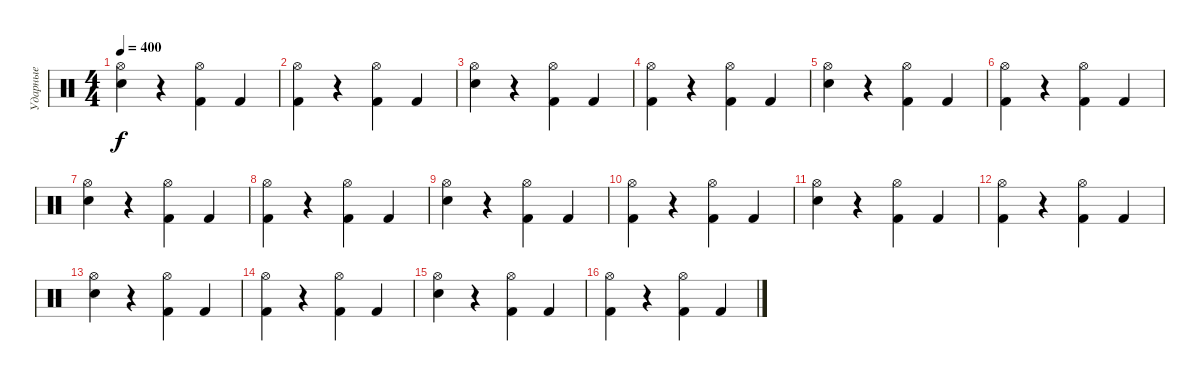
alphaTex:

\track ("Ударные" "Ударные") {instrument percussion}
\staff {score}
\articulation defaults
\ts (4 4)
\tempo 400
\clef neutral
\ks c
("Electric Snare (hit)" "Hi-Hat (open)").4{dy f} r.4 ("Kick (hit) 2" "Hi-Hat (open)").4 "Kick (hit) 2".4 |
("Kick (hit) 2" "Hi-Hat (open)").4 r.4 ("Kick (hit) 2" "Hi-Hat (open)").4 "Kick (hit) 2".4 |
("Electric Snare (hit)" "Hi-Hat (open)").4 r.4 ("Kick (hit) 2" "Hi-Hat (open)").4 "Kick (hit) 2".4 |
("Kick (hit) 2" "Hi-Hat (open)").4 r.4 ("Kick (hit) 2" "Hi-Hat (open)").4 "Kick (hit) 2".4 |
("Electric Snare (hit)" "Hi-Hat (open)").4 r.4 ("Kick (hit) 2" "Hi-Hat (open)").4 "Kick (hit) 2".4 |
("Kick (hit) 2" "Hi-Hat (open)").4 r.4 ("Kick (hit) 2" "Hi-Hat (open)").4 "Kick (hit) 2".4 |
("Electric Snare (hit)" "Hi-Hat (open)").4 r.4 ("Kick (hit) 2" "Hi-Hat (open)").4 "Kick (hit) 2".4 |
("Kick (hit) 2" "Hi-Hat (open)").4 r.4 ("Kick (hit) 2" "Hi-Hat (open)").4 "Kick (hit) 2".4 |
("Electric Snare (hit)" "Hi-Hat (open)").4 r.4 ("Kick (hit) 2" "Hi-Hat (open)").4 "Kick (hit) 2".4 |
("Kick (hit) 2" "Hi-Hat (open)").4 r.4 ("Kick (hit) 2" "Hi-Hat (open)").4 "Kick (hit) 2".4 |
("Electric Snare (hit)" "Hi-Hat (open)").4 r.4 ("Kick (hit) 2" "Hi-Hat (open)").4 "Kick (hit) 2".4 |
("Kick (hit) 2" "Hi-Hat (open)").4 r.4 ("Kick (hit) 2" "Hi-Hat (open)").4 "Kick (hit) 2".4 |
("Electric Snare (hit)" "Hi-Hat (open)").4 r.4 ("Kick (hit) 2" "Hi-Hat (open)").4 "Kick (hit) 2".4 |
("Kick (hit) 2" "Hi-Hat (open)").4 r.4 ("Kick (hit) 2" "Hi-Hat (open)").4 "Kick (hit) 2".4 |
("Electric Snare (hit)" "Hi-Hat (open)").4 r.4 ("Kick (hit) 2" "Hi-Hat (open)").4 "Kick (hit) 2".4 |
("Kick (hit) 2" "Hi-Hat (open)").4 r.4 ("Kick (hit) 2" "Hi-Hat (open)").4 "Kick (hit) 2".4
